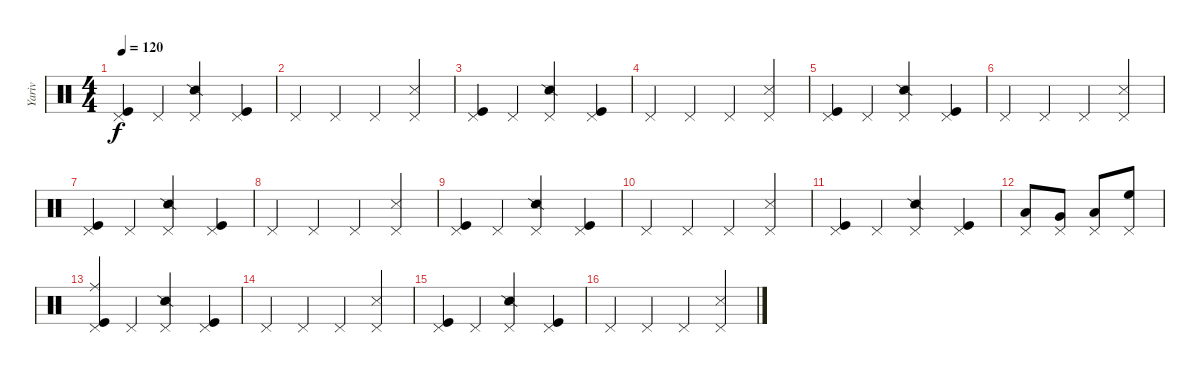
\track ("Yariv" "Yariv") {instrument percussion}
\staff {score}
\articulation defaults
\ts (4 4)
\tempo 120
\clef neutral
\ks c
("Pedal Hi-Hat (hit)" "Kick (hit)").4{dy f} "Pedal Hi-Hat (hit)".4 ("Pedal Hi-Hat (hit)" "Snare (side stick) 2").4 ("Pedal Hi-Hat (hit)" "Kick (hit)").4 |
"Pedal Hi-Hat (hit)".4 "Pedal Hi-Hat (hit)".4 "Pedal Hi-Hat (hit)".4 ("Pedal Hi-Hat (hit)" "Snare (side stick) 3").4 |
("Pedal Hi-Hat (hit)" "Kick (hit)").4 "Pedal Hi-Hat (hit)".4 ("Pedal Hi-Hat (hit)" "Snare (side stick) 2").4 ("Pedal Hi-Hat (hit)" "Kick (hit)").4 |
"Pedal Hi-Hat (hit)".4 "Pedal Hi-Hat (hit)".4 "Pedal Hi-Hat (hit)".4 ("Pedal Hi-Hat (hit)" "Snare (side stick) 3").4 |
("Pedal Hi-Hat (hit)" "Kick (hit)").4 "Pedal Hi-Hat (hit)".4 ("Pedal Hi-Hat (hit)" "Snare (side stick) 2").4 ("Pedal Hi-Hat (hit)" "Kick (hit)").4 |
"Pedal Hi-Hat (hit)".4 "Pedal Hi-Hat (hit)".4 "Pedal Hi-Hat (hit)".4 ("Pedal Hi-Hat (hit)" "Snare (side stick) 3").4 |
("Pedal Hi-Hat (hit)" "Kick (hit)").4 "Pedal Hi-Hat (hit)".4 ("Pedal Hi-Hat (hit)" "Snare (side stick) 2").4 ("Pedal Hi-Hat (hit)" "Kick (hit)").4 |
"Pedal Hi-Hat (hit)".4 "Pedal Hi-Hat (hit)".4 "Pedal Hi-Hat (hit)".4 ("Pedal Hi-Hat (hit)" "Snare (side stick) 3").4 |
("Pedal Hi-Hat (hit)" "Kick (hit)").4 "Pedal Hi-Hat (hit)".4 ("Pedal Hi-Hat (hit)" "Snare (side stick) 2").4 ("Pedal Hi-Hat (hit)" "Kick (hit)").4 |
"Pedal Hi-Hat (hit)".4 "Pedal Hi-Hat (hit)".4 "Pedal Hi-Hat (hit)".4 ("Pedal Hi-Hat (hit)" "Snare (side stick) 3").4 |
("Pedal Hi-Hat (hit)" "Kick (hit)").4 "Pedal Hi-Hat (hit)".4 ("Pedal Hi-Hat (hit)" "Snare (side stick) 2").4 ("Pedal Hi-Hat (hit)" "Kick (hit)").4 |
("Pedal Hi-Hat (hit)" "Low Floor Tom (hit)").8 ("Pedal Hi-Hat (hit)" "Very Low Tom (hit)").8 ("Pedal Hi-Hat (hit)" "Low Tom (hit)").8 ("Pedal Hi-Hat (hit)" "High Floor Tom (hit)").8 |
("Pedal Hi-Hat (hit)" "Kick (hit)" "Ride (middle)").4 "Pedal Hi-Hat (hit)".4 ("Pedal Hi-Hat (hit)" "Snare (side stick) 2").4 ("Pedal Hi-Hat (hit)" "Kick (hit)").4 |
"Pedal Hi-Hat (hit)".4 "Pedal Hi-Hat (hit)".4 "Pedal Hi-Hat (hit)".4 ("Pedal Hi-Hat (hit)" "Snare (side stick) 3").4 |
("Pedal Hi-Hat (hit)" "Kick (hit)").4 "Pedal Hi-Hat (hit)".4 ("Pedal Hi-Hat (hit)" "Snare (side stick) 2").4 ("Pedal Hi-Hat (hit)" "Kick (hit)").4 |
"Pedal Hi-Hat (hit)".4 "Pedal Hi-Hat (hit)".4 "Pedal Hi-Hat (hit)".4 ("Pedal Hi-Hat (hit)" "Snare (side stick) 3").4
